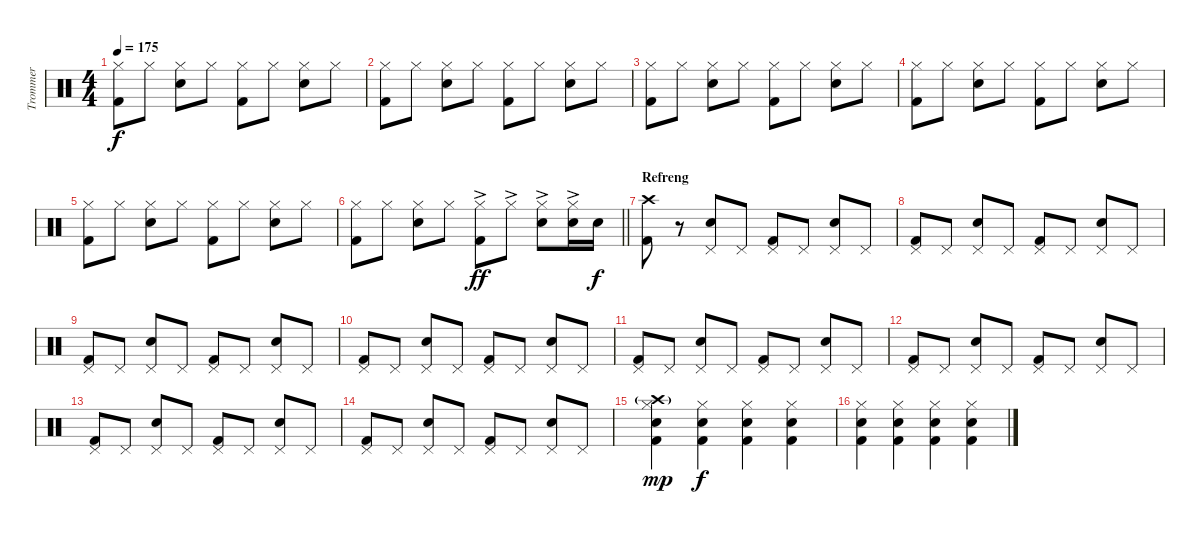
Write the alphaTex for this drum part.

\track ("Trommer" "Trommer") {instrument percussion}
\staff {score}
\articulation defaults
\ts (4 4)
\tempo 175
\clef neutral
\ks c
("Hi-Hat (closed)" "Kick (hit) 2").8{dy f} "Hi-Hat (closed)".8 ("Hi-Hat (closed)" "Electric Snare (hit)").8 "Hi-Hat (closed)".8 ("Hi-Hat (closed)" "Kick (hit) 2").8 "Hi-Hat (closed)".8 ("Hi-Hat (closed)" "Electric Snare (hit)").8 "Hi-Hat (closed)".8 |
("Hi-Hat (closed)" "Kick (hit) 2").8 "Hi-Hat (closed)".8 ("Hi-Hat (closed)" "Electric Snare (hit)").8 "Hi-Hat (closed)".8 ("Hi-Hat (closed)" "Kick (hit) 2").8 "Hi-Hat (closed)".8 ("Hi-Hat (closed)" "Electric Snare (hit)").8 "Hi-Hat (closed)".8 |
("Hi-Hat (closed)" "Kick (hit) 2").8 "Hi-Hat (closed)".8 ("Hi-Hat (closed)" "Electric Snare (hit)").8 "Hi-Hat (closed)".8 ("Hi-Hat (closed)" "Kick (hit) 2").8 "Hi-Hat (closed)".8 ("Hi-Hat (closed)" "Electric Snare (hit)").8 "Hi-Hat (closed)".8 |
("Hi-Hat (closed)" "Kick (hit) 2").8 "Hi-Hat (closed)".8 ("Hi-Hat (closed)" "Electric Snare (hit)").8 "Hi-Hat (closed)".8 ("Hi-Hat (closed)" "Kick (hit) 2").8 "Hi-Hat (closed)".8 ("Hi-Hat (closed)" "Electric Snare (hit)").8 "Hi-Hat (closed)".8 |
("Hi-Hat (closed)" "Kick (hit) 2").8 "Hi-Hat (closed)".8 ("Hi-Hat (closed)" "Electric Snare (hit)").8 "Hi-Hat (closed)".8 ("Hi-Hat (closed)" "Kick (hit) 2").8 "Hi-Hat (closed)".8 ("Hi-Hat (closed)" "Electric Snare (hit)").8 "Hi-Hat (closed)".8 |
\barLineRight lightlight
("Hi-Hat (closed)" "Kick (hit) 2").8 "Hi-Hat (closed)".8 ("Hi-Hat (closed)" "Electric Snare (hit)").8 "Hi-Hat (closed)".8 ("Hi-Hat (closed)"{ac} "Kick (hit) 2").8{dy ff} "Hi-Hat (closed)"{ac}.8 ("Hi-Hat (closed)"{ac} "Electric Snare (hit)").8 ("Hi-Hat (closed)"{ac} "Electric Snare (hit)").16 "Electric Snare (hit)".16{dy f} |
\section ("" "Refreng")
("Crash high (hit)" "Kick (hit) 2").8 r.8 ("Pedal Hi-Hat (hit)" "Electric Snare (hit)").8 "Pedal Hi-Hat (hit)".8 ("Pedal Hi-Hat (hit)" "Kick (hit) 2").8 "Pedal Hi-Hat (hit)".8 ("Pedal Hi-Hat (hit)" "Electric Snare (hit)").8 "Pedal Hi-Hat (hit)".8 |
("Pedal Hi-Hat (hit)" "Kick (hit) 2").8 "Pedal Hi-Hat (hit)".8 ("Pedal Hi-Hat (hit)" "Electric Snare (hit)").8 "Pedal Hi-Hat (hit)".8 ("Pedal Hi-Hat (hit)" "Kick (hit) 2").8 "Pedal Hi-Hat (hit)".8 ("Pedal Hi-Hat (hit)" "Electric Snare (hit)").8 "Pedal Hi-Hat (hit)".8 |
("Pedal Hi-Hat (hit)" "Kick (hit) 2").8 "Pedal Hi-Hat (hit)".8 ("Pedal Hi-Hat (hit)" "Electric Snare (hit)").8 "Pedal Hi-Hat (hit)".8 ("Pedal Hi-Hat (hit)" "Kick (hit) 2").8 "Pedal Hi-Hat (hit)".8 ("Pedal Hi-Hat (hit)" "Electric Snare (hit)").8 "Pedal Hi-Hat (hit)".8 |
("Pedal Hi-Hat (hit)" "Kick (hit) 2").8 "Pedal Hi-Hat (hit)".8 ("Pedal Hi-Hat (hit)" "Electric Snare (hit)").8 "Pedal Hi-Hat (hit)".8 ("Pedal Hi-Hat (hit)" "Kick (hit) 2").8 "Pedal Hi-Hat (hit)".8 ("Pedal Hi-Hat (hit)" "Electric Snare (hit)").8 "Pedal Hi-Hat (hit)".8 |
("Pedal Hi-Hat (hit)" "Kick (hit) 2").8 "Pedal Hi-Hat (hit)".8 ("Pedal Hi-Hat (hit)" "Electric Snare (hit)").8 "Pedal Hi-Hat (hit)".8 ("Pedal Hi-Hat (hit)" "Kick (hit) 2").8 "Pedal Hi-Hat (hit)".8 ("Pedal Hi-Hat (hit)" "Electric Snare (hit)").8 "Pedal Hi-Hat (hit)".8 |
("Pedal Hi-Hat (hit)" "Kick (hit) 2").8 "Pedal Hi-Hat (hit)".8 ("Pedal Hi-Hat (hit)" "Electric Snare (hit)").8 "Pedal Hi-Hat (hit)".8 ("Pedal Hi-Hat (hit)" "Kick (hit) 2").8 "Pedal Hi-Hat (hit)".8 ("Pedal Hi-Hat (hit)" "Electric Snare (hit)").8 "Pedal Hi-Hat (hit)".8 |
("Pedal Hi-Hat (hit)" "Kick (hit) 2").8 "Pedal Hi-Hat (hit)".8 ("Pedal Hi-Hat (hit)" "Electric Snare (hit)").8 "Pedal Hi-Hat (hit)".8 ("Pedal Hi-Hat (hit)" "Kick (hit) 2").8 "Pedal Hi-Hat (hit)".8 ("Pedal Hi-Hat (hit)" "Electric Snare (hit)").8 "Pedal Hi-Hat (hit)".8 |
("Pedal Hi-Hat (hit)" "Kick (hit) 2").8 "Pedal Hi-Hat (hit)".8 ("Pedal Hi-Hat (hit)" "Electric Snare (hit)").8 "Pedal Hi-Hat (hit)".8 ("Pedal Hi-Hat (hit)" "Kick (hit) 2").8 "Pedal Hi-Hat (hit)".8 ("Pedal Hi-Hat (hit)" "Electric Snare (hit)").8 "Pedal Hi-Hat (hit)".8 |
("Hi-Hat (closed)" "Crash high (hit)"{g} "Electric Snare (hit)" "Kick (hit) 2").4{dy mp} ("Hi-Hat (closed)" "Electric Snare (hit)" "Kick (hit) 2").4{dy f} ("Hi-Hat (closed)" "Electric Snare (hit)" "Kick (hit) 2").4 ("Hi-Hat (closed)" "Electric Snare (hit)" "Kick (hit) 2").4 |
("Hi-Hat (closed)" "Electric Snare (hit)" "Kick (hit) 2").4 ("Hi-Hat (closed)" "Electric Snare (hit)" "Kick (hit) 2").4 ("Hi-Hat (closed)" "Electric Snare (hit)" "Kick (hit) 2").4 ("Hi-Hat (closed)" "Electric Snare (hit)" "Kick (hit) 2").4
